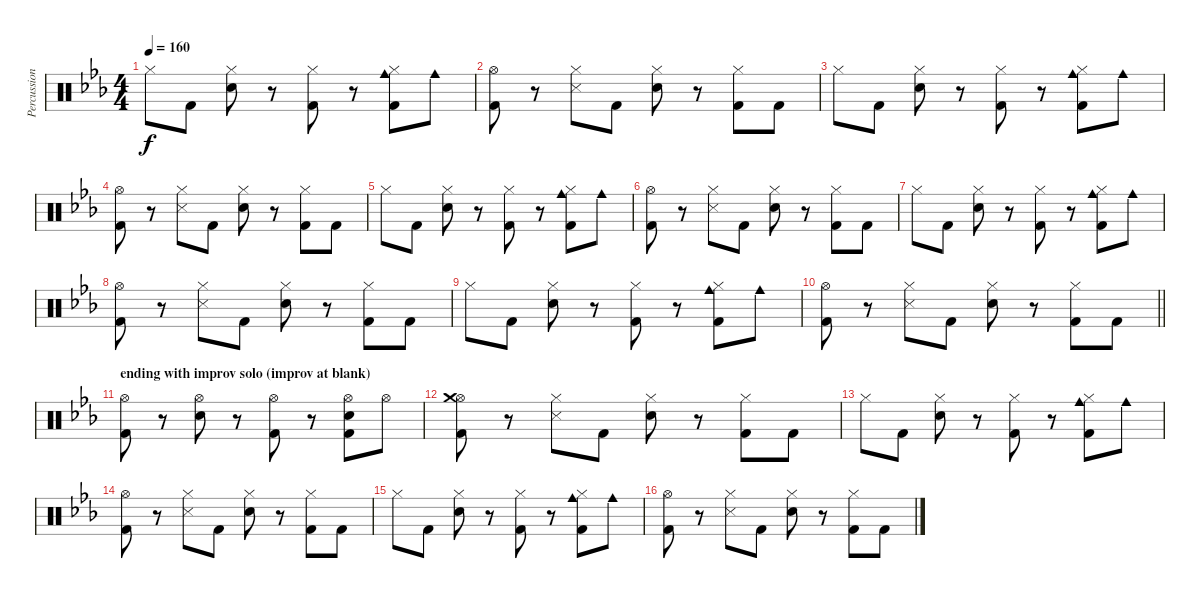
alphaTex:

\track ("Percussion" "Percussion") {instrument percussion}
\staff {score}
\articulation defaults
\ts (4 4)
\tempo 160
\clef neutral
\ks cminor "Hi-Hat (closed)".8{dy f} "Kick (hit) 2".8
("Hi-Hat (closed)" "Snare (hit) 2").8 r.8 ("Hi-Hat (closed)" "Kick (hit) 2").8 r.8 ("Cowbell medium (hit)" "Hi-Hat (closed)" "Kick (hit) 2").8 "Cowbell medium (hit)".8 |
("Hi-Hat (open)" "Kick (hit) 2").8 r.8 ("Hi-Hat (closed)" "Snare (side stick) 3").8 "Kick (hit) 2".8 ("Hi-Hat (closed)" "Snare (hit) 2").8 r.8 ("Hi-Hat (closed)" "Kick (hit) 2").8 "Kick (hit) 2".8 |
"Hi-Hat (closed)".8 "Kick (hit) 2".8 ("Hi-Hat (closed)" "Snare (hit) 2").8 r.8 ("Hi-Hat (closed)" "Kick (hit) 2").8 r.8 ("Cowbell medium (hit)" "Hi-Hat (closed)" "Kick (hit) 2").8 "Cowbell medium (hit)".8 |
("Hi-Hat (open)" "Kick (hit) 2").8 r.8 ("Hi-Hat (closed)" "Snare (side stick) 3").8 "Kick (hit) 2".8 ("Hi-Hat (closed)" "Snare (hit) 2").8 r.8 ("Hi-Hat (closed)" "Kick (hit) 2").8 "Kick (hit) 2".8 |
"Hi-Hat (closed)".8 "Kick (hit) 2".8 ("Hi-Hat (closed)" "Snare (hit) 2").8 r.8 ("Hi-Hat (closed)" "Kick (hit) 2").8 r.8 ("Cowbell medium (hit)" "Hi-Hat (closed)" "Kick (hit) 2").8 "Cowbell medium (hit)".8 |
("Hi-Hat (open)" "Kick (hit) 2").8 r.8 ("Hi-Hat (closed)" "Snare (side stick) 3").8 "Kick (hit) 2".8 ("Hi-Hat (closed)" "Snare (hit) 2").8 r.8 ("Hi-Hat (closed)" "Kick (hit) 2").8 "Kick (hit) 2".8 |
"Hi-Hat (closed)".8 "Kick (hit) 2".8 ("Hi-Hat (closed)" "Snare (hit) 2").8 r.8 ("Hi-Hat (closed)" "Kick (hit) 2").8 r.8 ("Cowbell medium (hit)" "Hi-Hat (closed)" "Kick (hit) 2").8 "Cowbell medium (hit)".8 |
("Hi-Hat (open)" "Kick (hit) 2").8 r.8 ("Hi-Hat (closed)" "Snare (side stick) 3").8 "Kick (hit) 2".8 ("Hi-Hat (closed)" "Snare (hit) 2").8 r.8 ("Hi-Hat (closed)" "Kick (hit) 2").8 "Kick (hit) 2".8 |
"Hi-Hat (closed)".8 "Kick (hit) 2".8 ("Hi-Hat (closed)" "Snare (hit) 2").8 r.8 ("Hi-Hat (closed)" "Kick (hit) 2").8 r.8 ("Cowbell medium (hit)" "Hi-Hat (closed)" "Kick (hit) 2").8 "Cowbell medium (hit)".8 |
\barLineRight lightlight
("Hi-Hat (open)" "Kick (hit) 2").8 r.8 ("Hi-Hat (closed)" "Snare (side stick) 3").8 "Kick (hit) 2".8 ("Hi-Hat (closed)" "Snare (hit) 2").8 r.8 ("Hi-Hat (closed)" "Kick (hit) 2").8 "Kick (hit) 2".8 |
\section ("" "ending with improv solo (improv at blank)")
("Hi-Hat (open)" "Kick (hit) 2").8 r.8 ("Hi-Hat (open)" "Snare (hit) 2").8 r.8 ("Hi-Hat (open)" "Kick (hit) 2").8 r.8 ("Hi-Hat (open)" "Snare (hit) 2" "Kick (hit) 2").8 "Hi-Hat (open)".8 |
("Hi-Hat (open)" "Kick (hit) 2" "Crash medium (hit)").8 r.8 ("Hi-Hat (closed)" "Snare (side stick) 3").8 "Kick (hit) 2".8 ("Hi-Hat (closed)" "Snare (hit) 2").8 r.8 ("Hi-Hat (closed)" "Kick (hit) 2").8 "Kick (hit) 2".8 |
"Hi-Hat (closed)".8 "Kick (hit) 2".8 ("Hi-Hat (closed)" "Snare (hit) 2").8 r.8 ("Hi-Hat (closed)" "Kick (hit) 2").8 r.8 ("Cowbell medium (hit)" "Hi-Hat (closed)" "Kick (hit) 2").8 "Cowbell medium (hit)".8 |
("Hi-Hat (open)" "Kick (hit) 2").8 r.8 ("Hi-Hat (closed)" "Snare (side stick) 3").8 "Kick (hit) 2".8 ("Hi-Hat (closed)" "Snare (hit) 2").8 r.8 ("Hi-Hat (closed)" "Kick (hit) 2").8 "Kick (hit) 2".8 |
"Hi-Hat (closed)".8 "Kick (hit) 2".8 ("Hi-Hat (closed)" "Snare (hit) 2").8 r.8 ("Hi-Hat (closed)" "Kick (hit) 2").8 r.8 ("Cowbell medium (hit)" "Hi-Hat (closed)" "Kick (hit) 2").8 "Cowbell medium (hit)".8 |
("Hi-Hat (open)" "Kick (hit) 2").8 r.8 ("Hi-Hat (closed)" "Snare (side stick) 3").8 "Kick (hit) 2".8 ("Hi-Hat (closed)" "Snare (hit) 2").8 r.8 ("Hi-Hat (closed)" "Kick (hit) 2").8 "Kick (hit) 2".8
